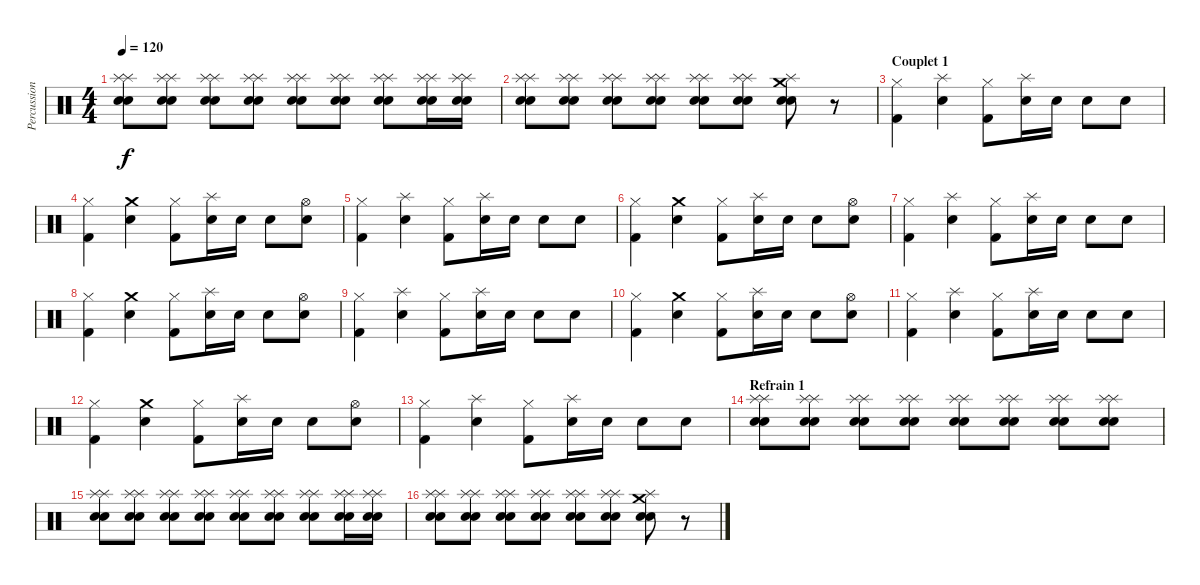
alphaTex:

\track ("Percussions" "Percussion") {instrument percussion}
\staff {score}
\articulation defaults
\ts (4 4)
\tempo 120
\clef neutral
\ks c
("Splash (hit)" "Splash (hit)" "Snare (hit) 2" "Snare (hit) 2").8{dy f} ("Splash (hit)" "Splash (hit)" "Snare (hit) 2" "Snare (hit) 2").8 ("Splash (hit)" "Splash (hit)" "Snare (hit) 2" "Snare (hit) 2").8 ("Splash (hit)" "Splash (hit)" "Snare (hit) 2" "Snare (hit) 2").8 ("Splash (hit)" "Splash (hit)" "Snare (hit) 2" "Snare (hit) 2").8 ("Splash (hit)" "Splash (hit)" "Snare (hit) 2" "Snare (hit) 2").8 ("Splash (hit)" "Splash (hit)" "Snare (hit) 2" "Snare (hit) 2").8 ("Splash (hit)" "Splash (hit)" "Snare (hit) 2" "Snare (hit) 2").16 ("Splash (hit)" "Splash (hit)" "Snare (hit) 2" "Snare (hit) 2").16 |
("Splash (hit)" "Splash (hit)" "Snare (hit) 2" "Snare (hit) 2").8 ("Splash (hit)" "Splash (hit)" "Snare (hit) 2" "Snare (hit) 2").8 ("Splash (hit)" "Splash (hit)" "Snare (hit) 2" "Snare (hit) 2").8 ("Splash (hit)" "Splash (hit)" "Snare (hit) 2" "Snare (hit) 2").8 ("Splash (hit)" "Splash (hit)" "Snare (hit) 2" "Snare (hit) 2").8 ("Splash (hit)" "Splash (hit)" "Snare (hit) 2" "Snare (hit) 2").8 ("Crash medium (hit)" "Splash (hit)" "Snare (hit) 2" "Snare (hit) 2").8 r.8 |
\section ("" "Couplet 1")
("Hi-Hat (closed)" "Kick (hit) 2").4 ("Splash (hit)" "Snare (hit) 2").4 ("Hi-Hat (closed)" "Kick (hit) 2").8 ("Splash (hit)" "Snare (hit) 2").16 "Snare (hit) 2".16 "Snare (hit) 2".8 "Snare (hit) 2".8 |
("Hi-Hat (closed)" "Kick (hit) 2").4 ("Crash medium (hit)" "Snare (hit) 2").4 ("Hi-Hat (closed)" "Kick (hit) 2").8 ("Splash (hit)" "Snare (hit) 2").16 "Snare (hit) 2".16 "Snare (hit) 2".8 ("Hi-Hat (open)" "Snare (hit) 2").8 |
("Hi-Hat (closed)" "Kick (hit) 2").4 ("Splash (hit)" "Snare (hit) 2").4 ("Hi-Hat (closed)" "Kick (hit) 2").8 ("Splash (hit)" "Snare (hit) 2").16 "Snare (hit) 2".16 "Snare (hit) 2".8 "Snare (hit) 2".8 |
("Hi-Hat (closed)" "Kick (hit) 2").4 ("Crash medium (hit)" "Snare (hit) 2").4 ("Hi-Hat (closed)" "Kick (hit) 2").8 ("Splash (hit)" "Snare (hit) 2").16 "Snare (hit) 2".16 "Snare (hit) 2".8 ("Hi-Hat (open)" "Snare (hit) 2").8 |
("Hi-Hat (closed)" "Kick (hit) 2").4 ("Splash (hit)" "Snare (hit) 2").4 ("Hi-Hat (closed)" "Kick (hit) 2").8 ("Splash (hit)" "Snare (hit) 2").16 "Snare (hit) 2".16 "Snare (hit) 2".8 "Snare (hit) 2".8 |
("Hi-Hat (closed)" "Kick (hit) 2").4 ("Crash medium (hit)" "Snare (hit) 2").4 ("Hi-Hat (closed)" "Kick (hit) 2").8 ("Splash (hit)" "Snare (hit) 2").16 "Snare (hit) 2".16 "Snare (hit) 2".8 ("Hi-Hat (open)" "Snare (hit) 2").8 |
("Hi-Hat (closed)" "Kick (hit) 2").4 ("Splash (hit)" "Snare (hit) 2").4 ("Hi-Hat (closed)" "Kick (hit) 2").8 ("Splash (hit)" "Snare (hit) 2").16 "Snare (hit) 2".16 "Snare (hit) 2".8 "Snare (hit) 2".8 |
("Hi-Hat (closed)" "Kick (hit) 2").4 ("Crash medium (hit)" "Snare (hit) 2").4 ("Hi-Hat (closed)" "Kick (hit) 2").8 ("Splash (hit)" "Snare (hit) 2").16 "Snare (hit) 2".16 "Snare (hit) 2".8 ("Hi-Hat (open)" "Snare (hit) 2").8 |
("Hi-Hat (closed)" "Kick (hit) 2").4 ("Splash (hit)" "Snare (hit) 2").4 ("Hi-Hat (closed)" "Kick (hit) 2").8 ("Splash (hit)" "Snare (hit) 2").16 "Snare (hit) 2".16 "Snare (hit) 2".8 "Snare (hit) 2".8 |
("Hi-Hat (closed)" "Kick (hit) 2").4 ("Crash medium (hit)" "Snare (hit) 2").4 ("Hi-Hat (closed)" "Kick (hit) 2").8 ("Splash (hit)" "Snare (hit) 2").16 "Snare (hit) 2".16 "Snare (hit) 2".8 ("Hi-Hat (open)" "Snare (hit) 2").8 |
("Hi-Hat (closed)" "Kick (hit) 2").4 ("Splash (hit)" "Snare (hit) 2").4 ("Hi-Hat (closed)" "Kick (hit) 2").8 ("Splash (hit)" "Snare (hit) 2").16 "Snare (hit) 2".16 "Snare (hit) 2".8 "Snare (hit) 2".8 |
\section ("" "Refrain 1")
("Splash (hit)" "Splash (hit)" "Snare (hit) 2" "Snare (hit) 2").8{volume 4} ("Splash (hit)" "Splash (hit)" "Snare (hit) 2" "Snare (hit) 2").8{volume 10} ("Splash (hit)" "Splash (hit)" "Snare (hit) 2" "Snare (hit) 2").8 ("Splash (hit)" "Splash (hit)" "Snare (hit) 2" "Snare (hit) 2").8 ("Splash (hit)" "Splash (hit)" "Snare (hit) 2" "Snare (hit) 2").8 ("Splash (hit)" "Splash (hit)" "Snare (hit) 2" "Snare (hit) 2").8 ("Splash (hit)" "Splash (hit)" "Snare (hit) 2" "Snare (hit) 2").8 ("Splash (hit)" "Splash (hit)" "Snare (hit) 2" "Snare (hit) 2").8 |
("Splash (hit)" "Splash (hit)" "Snare (hit) 2" "Snare (hit) 2").8 ("Splash (hit)" "Splash (hit)" "Snare (hit) 2" "Snare (hit) 2").8 ("Splash (hit)" "Splash (hit)" "Snare (hit) 2" "Snare (hit) 2").8 ("Splash (hit)" "Splash (hit)" "Snare (hit) 2" "Snare (hit) 2").8 ("Splash (hit)" "Splash (hit)" "Snare (hit) 2" "Snare (hit) 2").8 ("Splash (hit)" "Splash (hit)" "Snare (hit) 2" "Snare (hit) 2").8 ("Splash (hit)" "Splash (hit)" "Snare (hit) 2" "Snare (hit) 2").8 ("Splash (hit)" "Splash (hit)" "Snare (hit) 2" "Snare (hit) 2").16 ("Splash (hit)" "Splash (hit)" "Snare (hit) 2" "Snare (hit) 2").16 |
("Splash (hit)" "Splash (hit)" "Snare (hit) 2" "Snare (hit) 2").8 ("Splash (hit)" "Splash (hit)" "Snare (hit) 2" "Snare (hit) 2").8 ("Splash (hit)" "Splash (hit)" "Snare (hit) 2" "Snare (hit) 2").8 ("Splash (hit)" "Splash (hit)" "Snare (hit) 2" "Snare (hit) 2").8 ("Splash (hit)" "Splash (hit)" "Snare (hit) 2" "Snare (hit) 2").8 ("Splash (hit)" "Splash (hit)" "Snare (hit) 2" "Snare (hit) 2").8 ("Crash medium (hit)" "Splash (hit)" "Snare (hit) 2" "Snare (hit) 2").8 r.8
